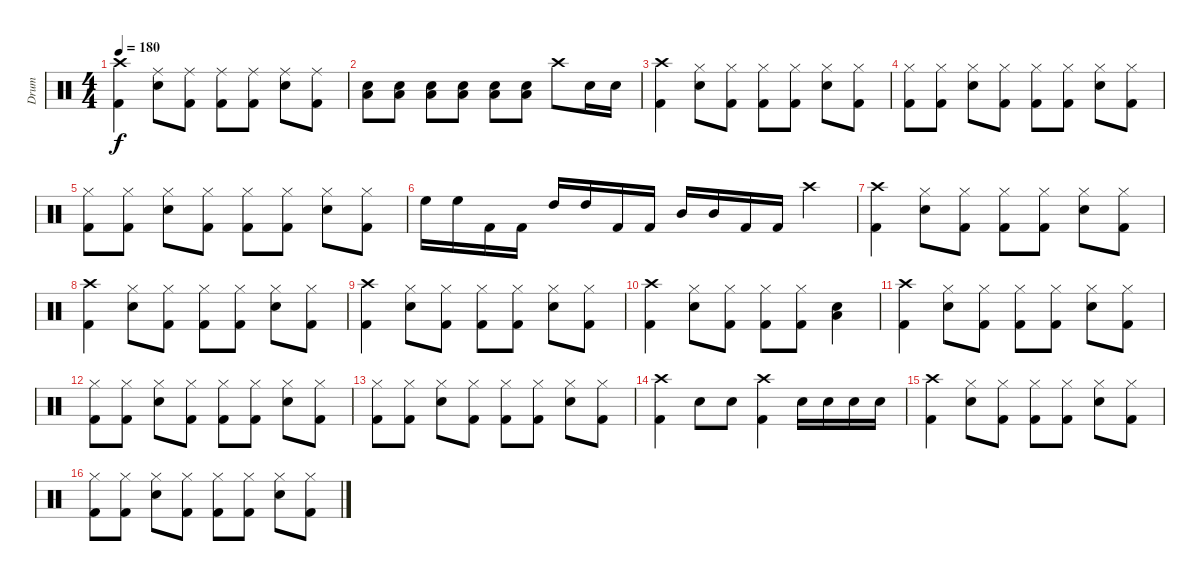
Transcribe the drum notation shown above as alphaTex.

\track ("Drum" "Drum") {instrument percussion}
\staff {score}
\articulation defaults
\ts (4 4)
\tempo 180
\clef neutral
\ks c
("Crash high (hit)" "Kick (hit) 2").4{dy f} ("Ride (middle)" "Snare (hit) 2").8 ("Ride (middle)" "Kick (hit) 2").8 ("Ride (middle)" "Kick (hit) 2").8 ("Ride (middle)" "Kick (hit) 2").8 ("Ride (middle)" "Snare (hit) 2").8 ("Ride (middle)" "Kick (hit) 2").8 |
("Snare (hit) 2" "Low Floor Tom (hit)").8 ("Snare (hit) 2" "Low Floor Tom (hit)").8 ("Snare (hit) 2" "Low Floor Tom (hit)").8 ("Snare (hit) 2" "Low Floor Tom (hit)").8 ("Snare (hit) 2" "Low Floor Tom (hit)").8 ("Snare (hit) 2" "Low Floor Tom (hit)").8 "Crash high (hit)".8 "Snare (hit) 2".16 "Snare (hit) 2".16 |
("Crash high (hit)" "Kick (hit) 2").4 ("Hi-Hat (closed)" "Snare (hit) 2").8 ("Hi-Hat (closed)" "Kick (hit) 2").8 ("Hi-Hat (closed)" "Kick (hit) 2").8 ("Hi-Hat (closed)" "Kick (hit) 2").8 ("Hi-Hat (closed)" "Snare (hit) 2").8 ("Hi-Hat (closed)" "Kick (hit) 2").8 |
("Hi-Hat (closed)" "Kick (hit) 2").8 ("Hi-Hat (closed)" "Kick (hit) 2").8 ("Hi-Hat (closed)" "Snare (hit) 2").8 ("Hi-Hat (closed)" "Kick (hit) 2").8 ("Hi-Hat (closed)" "Kick (hit) 2").8 ("Hi-Hat (closed)" "Kick (hit) 2").8 ("Hi-Hat (closed)" "Snare (hit) 2").8 ("Hi-Hat (closed)" "Kick (hit) 2").8 |
("Hi-Hat (closed)" "Kick (hit) 2").8 ("Hi-Hat (closed)" "Kick (hit) 2").8 ("Hi-Hat (closed)" "Snare (hit) 2").8 ("Hi-Hat (closed)" "Kick (hit) 2").8 ("Hi-Hat (closed)" "Kick (hit) 2").8 ("Hi-Hat (closed)" "Kick (hit) 2").8 ("Hi-Hat (closed)" "Snare (hit) 2").8 ("Hi-Hat (closed)" "Kick (hit) 2").8 |
"High Floor Tom (hit)".16 "High Floor Tom (hit)".16 "Kick (hit) 2".16 "Kick (hit) 2".16 "High Tom (hit)".16 "High Tom (hit)".16 "Kick (hit) 2".16 "Kick (hit) 2".16 "Mid Tom (hit)".16 "Mid Tom (hit)".16 "Kick (hit) 2".16 "Kick (hit) 2".16 "Crash high (hit)".4 |
("Crash high (hit)" "Kick (hit) 2").4 ("Hi-Hat (closed)" "Snare (hit) 2").8 ("Hi-Hat (closed)" "Kick (hit) 2").8 ("Hi-Hat (closed)" "Kick (hit) 2").8 ("Hi-Hat (closed)" "Kick (hit) 2").8 ("Hi-Hat (closed)" "Snare (hit) 2").8 ("Hi-Hat (closed)" "Kick (hit) 2").8 |
("Crash high (hit)" "Kick (hit) 2").4 ("Hi-Hat (closed)" "Snare (hit) 2").8 ("Hi-Hat (closed)" "Kick (hit) 2").8 ("Hi-Hat (closed)" "Kick (hit) 2").8 ("Hi-Hat (closed)" "Kick (hit) 2").8 ("Hi-Hat (closed)" "Snare (hit) 2").8 ("Hi-Hat (closed)" "Kick (hit) 2").8 |
("Crash high (hit)" "Kick (hit) 2").4 ("Hi-Hat (closed)" "Snare (hit) 2").8 ("Hi-Hat (closed)" "Kick (hit) 2").8 ("Hi-Hat (closed)" "Kick (hit) 2").8 ("Hi-Hat (closed)" "Kick (hit) 2").8 ("Hi-Hat (closed)" "Snare (hit) 2").8 ("Hi-Hat (closed)" "Kick (hit) 2").8 |
("Crash high (hit)" "Kick (hit) 2").4 ("Hi-Hat (closed)" "Snare (hit) 2").8 ("Hi-Hat (closed)" "Kick (hit) 2").8 ("Hi-Hat (closed)" "Kick (hit) 2").8 ("Hi-Hat (closed)" "Kick (hit) 2").8 ("Snare (hit) 2" "Low Floor Tom (hit)").4 |
("Crash high (hit)" "Kick (hit) 2").4 ("Hi-Hat (closed)" "Snare (hit) 2").8 ("Hi-Hat (closed)" "Kick (hit) 2").8 ("Hi-Hat (closed)" "Kick (hit) 2").8 ("Hi-Hat (closed)" "Kick (hit) 2").8 ("Hi-Hat (closed)" "Snare (hit) 2").8 ("Hi-Hat (closed)" "Kick (hit) 2").8 |
("Hi-Hat (closed)" "Kick (hit) 2").8 ("Hi-Hat (closed)" "Kick (hit) 2").8 ("Hi-Hat (closed)" "Snare (hit) 2").8 ("Hi-Hat (closed)" "Kick (hit) 2").8 ("Hi-Hat (closed)" "Kick (hit) 2").8 ("Hi-Hat (closed)" "Kick (hit) 2").8 ("Hi-Hat (closed)" "Snare (hit) 2").8 ("Hi-Hat (closed)" "Kick (hit) 2").8 |
("Hi-Hat (closed)" "Kick (hit) 2").8 ("Hi-Hat (closed)" "Kick (hit) 2").8 ("Hi-Hat (closed)" "Snare (hit) 2").8 ("Hi-Hat (closed)" "Kick (hit) 2").8 ("Hi-Hat (closed)" "Kick (hit) 2").8 ("Hi-Hat (closed)" "Kick (hit) 2").8 ("Hi-Hat (closed)" "Snare (hit) 2").8 ("Hi-Hat (closed)" "Kick (hit) 2").8 |
("Crash high (hit)" "Kick (hit) 2").4 "Snare (hit) 2".8 "Snare (hit) 2".8 ("Crash high (hit)" "Kick (hit) 2").4 "Snare (hit) 2".16 "Snare (hit) 2".16 "Snare (hit) 2".16 "Snare (hit) 2".16 |
("Crash high (hit)" "Kick (hit) 2").4 ("Hi-Hat (closed)" "Snare (hit) 2").8 ("Hi-Hat (closed)" "Kick (hit) 2").8 ("Hi-Hat (closed)" "Kick (hit) 2").8 ("Hi-Hat (closed)" "Kick (hit) 2").8 ("Hi-Hat (closed)" "Snare (hit) 2").8 ("Hi-Hat (closed)" "Kick (hit) 2").8 |
("Hi-Hat (closed)" "Kick (hit) 2").8 ("Hi-Hat (closed)" "Kick (hit) 2").8 ("Hi-Hat (closed)" "Snare (hit) 2").8 ("Hi-Hat (closed)" "Kick (hit) 2").8 ("Hi-Hat (closed)" "Kick (hit) 2").8 ("Hi-Hat (closed)" "Kick (hit) 2").8 ("Hi-Hat (closed)" "Snare (hit) 2").8 ("Hi-Hat (closed)" "Kick (hit) 2").8
